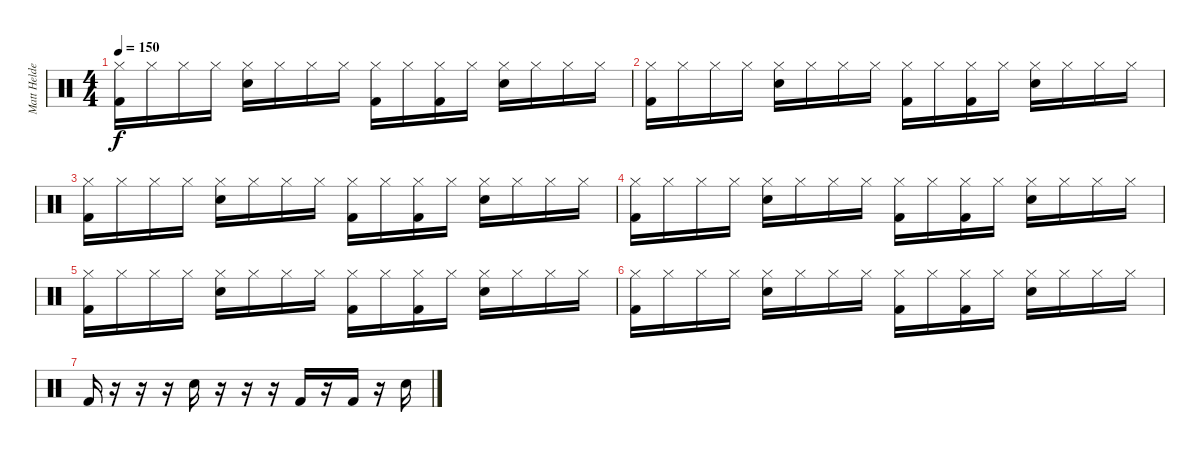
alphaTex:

\track ("Matt Helders" "Matt Helde") {instrument percussion}
\staff {score}
\articulation defaults
\ts (4 4)
\tempo 150
\clef neutral
\ks c
("Hi-Hat (closed)" "Kick (hit) 2").16{dy f} "Hi-Hat (closed)".16 "Hi-Hat (closed)".16 "Hi-Hat (closed)".16 ("Hi-Hat (closed)" "Snare (hit) 2").16 "Hi-Hat (closed)".16 "Hi-Hat (closed)".16 "Hi-Hat (closed)".16 ("Hi-Hat (closed)" "Kick (hit) 2").16 "Hi-Hat (closed)".16 ("Hi-Hat (closed)" "Kick (hit) 2").16 "Hi-Hat (closed)".16 ("Hi-Hat (closed)" "Snare (hit) 2").16 "Hi-Hat (closed)".16 "Hi-Hat (closed)".16 "Hi-Hat (closed)".16 |
("Hi-Hat (closed)" "Kick (hit) 2").16 "Hi-Hat (closed)".16 "Hi-Hat (closed)".16 "Hi-Hat (closed)".16 ("Hi-Hat (closed)" "Snare (hit) 2").16 "Hi-Hat (closed)".16 "Hi-Hat (closed)".16 "Hi-Hat (closed)".16 ("Hi-Hat (closed)" "Kick (hit) 2").16 "Hi-Hat (closed)".16 ("Hi-Hat (closed)" "Kick (hit) 2").16 "Hi-Hat (closed)".16 ("Hi-Hat (closed)" "Snare (hit) 2").16 "Hi-Hat (closed)".16 "Hi-Hat (closed)".16 "Hi-Hat (closed)".16 |
("Hi-Hat (closed)" "Kick (hit) 2").16 "Hi-Hat (closed)".16 "Hi-Hat (closed)".16 "Hi-Hat (closed)".16 ("Hi-Hat (closed)" "Snare (hit) 2").16 "Hi-Hat (closed)".16 "Hi-Hat (closed)".16 "Hi-Hat (closed)".16 ("Hi-Hat (closed)" "Kick (hit) 2").16 "Hi-Hat (closed)".16 ("Hi-Hat (closed)" "Kick (hit) 2").16 "Hi-Hat (closed)".16 ("Hi-Hat (closed)" "Snare (hit) 2").16 "Hi-Hat (closed)".16 "Hi-Hat (closed)".16 "Hi-Hat (closed)".16 |
("Hi-Hat (closed)" "Kick (hit) 2").16 "Hi-Hat (closed)".16 "Hi-Hat (closed)".16 "Hi-Hat (closed)".16 ("Hi-Hat (closed)" "Snare (hit) 2").16 "Hi-Hat (closed)".16 "Hi-Hat (closed)".16 "Hi-Hat (closed)".16 ("Hi-Hat (closed)" "Kick (hit) 2").16 "Hi-Hat (closed)".16 ("Hi-Hat (closed)" "Kick (hit) 2").16 "Hi-Hat (closed)".16 ("Hi-Hat (closed)" "Snare (hit) 2").16 "Hi-Hat (closed)".16 "Hi-Hat (closed)".16 "Hi-Hat (closed)".16 |
("Hi-Hat (closed)" "Kick (hit) 2").16 "Hi-Hat (closed)".16 "Hi-Hat (closed)".16 "Hi-Hat (closed)".16 ("Hi-Hat (closed)" "Snare (hit) 2").16 "Hi-Hat (closed)".16 "Hi-Hat (closed)".16 "Hi-Hat (closed)".16 ("Hi-Hat (closed)" "Kick (hit) 2").16 "Hi-Hat (closed)".16 ("Hi-Hat (closed)" "Kick (hit) 2").16 "Hi-Hat (closed)".16 ("Hi-Hat (closed)" "Snare (hit) 2").16 "Hi-Hat (closed)".16 "Hi-Hat (closed)".16 "Hi-Hat (closed)".16 |
("Hi-Hat (closed)" "Kick (hit) 2").16 "Hi-Hat (closed)".16 "Hi-Hat (closed)".16 "Hi-Hat (closed)".16 ("Hi-Hat (closed)" "Snare (hit) 2").16 "Hi-Hat (closed)".16 "Hi-Hat (closed)".16 "Hi-Hat (closed)".16 ("Hi-Hat (closed)" "Kick (hit) 2").16 "Hi-Hat (closed)".16 ("Hi-Hat (closed)" "Kick (hit) 2").16 "Hi-Hat (closed)".16 ("Hi-Hat (closed)" "Snare (hit) 2").16 "Hi-Hat (closed)".16 "Hi-Hat (closed)".16 "Hi-Hat (closed)".16 |
"Kick (hit) 2".16 r.16 r.16 r.16 "Snare (hit) 2".16 r.16 r.16 r.16 "Kick (hit) 2".16 r.16 "Kick (hit) 2".16 r.16 "Snare (hit) 2".16
